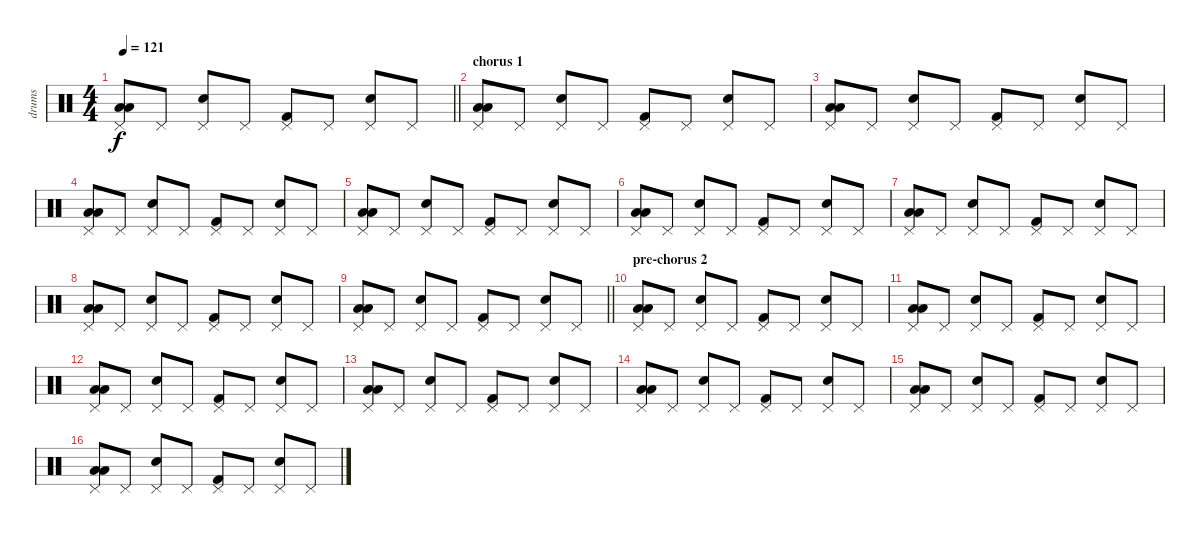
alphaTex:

\track ("drums" "drums") {instrument percussion}
\staff {score}
\articulation defaults
\ts (4 4)
\tempo 121
\clef neutral
\barLineRight lightlight
\ks c
("Low Floor Tom (hit)" "Low Floor Tom (hit)" "Pedal Hi-Hat (hit)").8{dy f} "Pedal Hi-Hat (hit)".8 ("Hand Clap (hit)" "Pedal Hi-Hat (hit)").8 "Pedal Hi-Hat (hit)".8 ("Kick (hit) 2" "Pedal Hi-Hat (hit)").8 "Pedal Hi-Hat (hit)".8 ("Snare (hit) 2" "Pedal Hi-Hat (hit)").8 "Pedal Hi-Hat (hit)".8 |
\section ("" "chorus 1")
("Low Floor Tom (hit)" "Low Floor Tom (hit)" "Pedal Hi-Hat (hit)").8 "Pedal Hi-Hat (hit)".8 ("Hand Clap (hit)" "Pedal Hi-Hat (hit)").8 "Pedal Hi-Hat (hit)".8 ("Kick (hit) 2" "Pedal Hi-Hat (hit)").8 "Pedal Hi-Hat (hit)".8 ("Snare (hit) 2" "Pedal Hi-Hat (hit)").8 "Pedal Hi-Hat (hit)".8 |
("Low Floor Tom (hit)" "Low Floor Tom (hit)" "Pedal Hi-Hat (hit)").8 "Pedal Hi-Hat (hit)".8 ("Hand Clap (hit)" "Pedal Hi-Hat (hit)").8 "Pedal Hi-Hat (hit)".8 ("Kick (hit) 2" "Pedal Hi-Hat (hit)").8 "Pedal Hi-Hat (hit)".8 ("Snare (hit) 2" "Pedal Hi-Hat (hit)").8 "Pedal Hi-Hat (hit)".8 |
("Low Floor Tom (hit)" "Low Floor Tom (hit)" "Pedal Hi-Hat (hit)").8 "Pedal Hi-Hat (hit)".8 ("Hand Clap (hit)" "Pedal Hi-Hat (hit)").8 "Pedal Hi-Hat (hit)".8 ("Kick (hit) 2" "Pedal Hi-Hat (hit)").8 "Pedal Hi-Hat (hit)".8 ("Snare (hit) 2" "Pedal Hi-Hat (hit)").8 "Pedal Hi-Hat (hit)".8 |
("Low Floor Tom (hit)" "Low Floor Tom (hit)" "Pedal Hi-Hat (hit)").8 "Pedal Hi-Hat (hit)".8 ("Hand Clap (hit)" "Pedal Hi-Hat (hit)").8 "Pedal Hi-Hat (hit)".8 ("Kick (hit) 2" "Pedal Hi-Hat (hit)").8 "Pedal Hi-Hat (hit)".8 ("Snare (hit) 2" "Pedal Hi-Hat (hit)").8 "Pedal Hi-Hat (hit)".8 |
("Low Floor Tom (hit)" "Low Floor Tom (hit)" "Pedal Hi-Hat (hit)").8 "Pedal Hi-Hat (hit)".8 ("Hand Clap (hit)" "Pedal Hi-Hat (hit)").8 "Pedal Hi-Hat (hit)".8 ("Kick (hit) 2" "Pedal Hi-Hat (hit)").8 "Pedal Hi-Hat (hit)".8 ("Snare (hit) 2" "Pedal Hi-Hat (hit)").8 "Pedal Hi-Hat (hit)".8 |
("Low Floor Tom (hit)" "Low Floor Tom (hit)" "Pedal Hi-Hat (hit)").8 "Pedal Hi-Hat (hit)".8 ("Hand Clap (hit)" "Pedal Hi-Hat (hit)").8 "Pedal Hi-Hat (hit)".8 ("Kick (hit) 2" "Pedal Hi-Hat (hit)").8 "Pedal Hi-Hat (hit)".8 ("Snare (hit) 2" "Pedal Hi-Hat (hit)").8 "Pedal Hi-Hat (hit)".8 |
("Low Floor Tom (hit)" "Low Floor Tom (hit)" "Pedal Hi-Hat (hit)").8 "Pedal Hi-Hat (hit)".8 ("Hand Clap (hit)" "Pedal Hi-Hat (hit)").8 "Pedal Hi-Hat (hit)".8 ("Kick (hit) 2" "Pedal Hi-Hat (hit)").8 "Pedal Hi-Hat (hit)".8 ("Snare (hit) 2" "Pedal Hi-Hat (hit)").8 "Pedal Hi-Hat (hit)".8 |
\barLineRight lightlight
("Low Floor Tom (hit)" "Low Floor Tom (hit)" "Pedal Hi-Hat (hit)").8 "Pedal Hi-Hat (hit)".8 ("Hand Clap (hit)" "Pedal Hi-Hat (hit)").8 "Pedal Hi-Hat (hit)".8 ("Kick (hit) 2" "Pedal Hi-Hat (hit)").8 "Pedal Hi-Hat (hit)".8 ("Snare (hit) 2" "Pedal Hi-Hat (hit)").8 "Pedal Hi-Hat (hit)".8 |
\section ("" "pre-chorus 2")
("Low Floor Tom (hit)" "Low Floor Tom (hit)" "Pedal Hi-Hat (hit)").8 "Pedal Hi-Hat (hit)".8 ("Hand Clap (hit)" "Pedal Hi-Hat (hit)").8 "Pedal Hi-Hat (hit)".8 ("Kick (hit) 2" "Pedal Hi-Hat (hit)").8 "Pedal Hi-Hat (hit)".8 ("Snare (hit) 2" "Pedal Hi-Hat (hit)").8 "Pedal Hi-Hat (hit)".8 |
("Low Floor Tom (hit)" "Low Floor Tom (hit)" "Pedal Hi-Hat (hit)").8 "Pedal Hi-Hat (hit)".8 ("Hand Clap (hit)" "Pedal Hi-Hat (hit)").8 "Pedal Hi-Hat (hit)".8 ("Kick (hit) 2" "Pedal Hi-Hat (hit)").8 "Pedal Hi-Hat (hit)".8 ("Snare (hit) 2" "Pedal Hi-Hat (hit)").8 "Pedal Hi-Hat (hit)".8 |
("Low Floor Tom (hit)" "Low Floor Tom (hit)" "Pedal Hi-Hat (hit)").8 "Pedal Hi-Hat (hit)".8 ("Hand Clap (hit)" "Pedal Hi-Hat (hit)").8 "Pedal Hi-Hat (hit)".8 ("Kick (hit) 2" "Pedal Hi-Hat (hit)").8 "Pedal Hi-Hat (hit)".8 ("Snare (hit) 2" "Pedal Hi-Hat (hit)").8 "Pedal Hi-Hat (hit)".8 |
("Low Floor Tom (hit)" "Low Floor Tom (hit)" "Pedal Hi-Hat (hit)").8 "Pedal Hi-Hat (hit)".8 ("Hand Clap (hit)" "Pedal Hi-Hat (hit)").8 "Pedal Hi-Hat (hit)".8 ("Kick (hit) 2" "Pedal Hi-Hat (hit)").8 "Pedal Hi-Hat (hit)".8 ("Snare (hit) 2" "Pedal Hi-Hat (hit)").8 "Pedal Hi-Hat (hit)".8 |
("Low Floor Tom (hit)" "Low Floor Tom (hit)" "Pedal Hi-Hat (hit)").8 "Pedal Hi-Hat (hit)".8 ("Hand Clap (hit)" "Pedal Hi-Hat (hit)").8 "Pedal Hi-Hat (hit)".8 ("Kick (hit) 2" "Pedal Hi-Hat (hit)").8 "Pedal Hi-Hat (hit)".8 ("Snare (hit) 2" "Pedal Hi-Hat (hit)").8 "Pedal Hi-Hat (hit)".8 |
("Low Floor Tom (hit)" "Low Floor Tom (hit)" "Pedal Hi-Hat (hit)").8 "Pedal Hi-Hat (hit)".8 ("Hand Clap (hit)" "Pedal Hi-Hat (hit)").8 "Pedal Hi-Hat (hit)".8 ("Kick (hit) 2" "Pedal Hi-Hat (hit)").8 "Pedal Hi-Hat (hit)".8 ("Snare (hit) 2" "Pedal Hi-Hat (hit)").8 "Pedal Hi-Hat (hit)".8 |
("Low Floor Tom (hit)" "Low Floor Tom (hit)" "Pedal Hi-Hat (hit)").8 "Pedal Hi-Hat (hit)".8 ("Hand Clap (hit)" "Pedal Hi-Hat (hit)").8 "Pedal Hi-Hat (hit)".8 ("Kick (hit) 2" "Pedal Hi-Hat (hit)").8 "Pedal Hi-Hat (hit)".8 ("Snare (hit) 2" "Pedal Hi-Hat (hit)").8 "Pedal Hi-Hat (hit)".8
